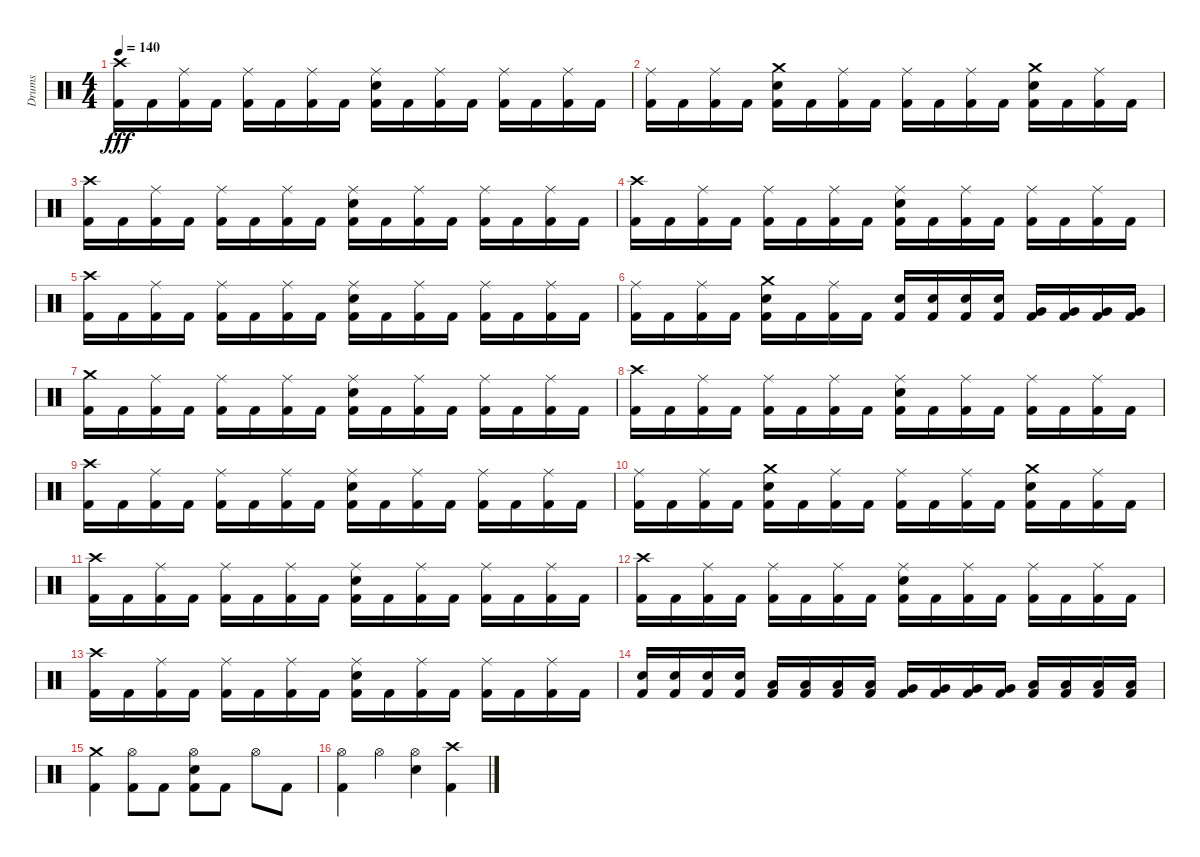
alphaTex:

\track ("Drums" "Drums") {instrument percussion}
\staff {score}
\articulation defaults
\ts (4 4)
\tempo 140
\clef neutral
\ks c
("Kick (hit) 2" "Crash high (hit)").16{dy fff} "Kick (hit) 2".16 ("Kick (hit) 2" "Ride (middle)").16 "Kick (hit) 2".16 ("Kick (hit) 2" "Ride (middle)").16 "Kick (hit) 2".16 ("Kick (hit) 2" "Ride (middle)").16 "Kick (hit) 2".16 ("Kick (hit) 2" "Electric Snare (hit)" "Ride (middle)").16 "Kick (hit) 2".16 ("Kick (hit) 2" "Ride (middle)").16 "Kick (hit) 2".16 ("Kick (hit) 2" "Ride (middle)").16 "Kick (hit) 2".16 ("Kick (hit) 2" "Ride (middle)").16 "Kick (hit) 2".16 |
("Kick (hit) 2" "Ride (middle)").16 "Kick (hit) 2".16 ("Kick (hit) 2" "Ride (middle)").16 "Kick (hit) 2".16 ("Kick (hit) 2" "Electric Snare (hit)" "Crash medium (hit)").16 "Kick (hit) 2".16 ("Kick (hit) 2" "Ride (middle)").16 "Kick (hit) 2".16 ("Kick (hit) 2" "Ride (middle)").16 "Kick (hit) 2".16 ("Kick (hit) 2" "Ride (middle)").16 "Kick (hit) 2".16 ("Kick (hit) 2" "Electric Snare (hit)" "Crash medium (hit)").16 "Kick (hit) 2".16 ("Kick (hit) 2" "Ride (middle)").16 "Kick (hit) 2".16 |
("Kick (hit) 2" "Crash high (hit)").16 "Kick (hit) 2".16 ("Kick (hit) 2" "Ride (middle)").16 "Kick (hit) 2".16 ("Kick (hit) 2" "Ride (middle)").16 "Kick (hit) 2".16 ("Kick (hit) 2" "Ride (middle)").16 "Kick (hit) 2".16 ("Kick (hit) 2" "Electric Snare (hit)" "Ride (middle)").16 "Kick (hit) 2".16 ("Kick (hit) 2" "Ride (middle)").16 "Kick (hit) 2".16 ("Kick (hit) 2" "Ride (middle)").16 "Kick (hit) 2".16 ("Kick (hit) 2" "Ride (middle)").16 "Kick (hit) 2".16 |
("Kick (hit) 2" "Crash high (hit)").16 "Kick (hit) 2".16 ("Kick (hit) 2" "Ride (middle)").16 "Kick (hit) 2".16 ("Kick (hit) 2" "Ride (middle)").16 "Kick (hit) 2".16 ("Kick (hit) 2" "Ride (middle)").16 "Kick (hit) 2".16 ("Kick (hit) 2" "Electric Snare (hit)" "Ride (middle)").16 "Kick (hit) 2".16 ("Kick (hit) 2" "Ride (middle)").16 "Kick (hit) 2".16 ("Kick (hit) 2" "Ride (middle)").16 "Kick (hit) 2".16 ("Kick (hit) 2" "Ride (middle)").16 "Kick (hit) 2".16 |
("Kick (hit) 2" "Crash high (hit)").16 "Kick (hit) 2".16 ("Kick (hit) 2" "Ride (middle)").16 "Kick (hit) 2".16 ("Kick (hit) 2" "Ride (middle)").16 "Kick (hit) 2".16 ("Kick (hit) 2" "Ride (middle)").16 "Kick (hit) 2".16 ("Kick (hit) 2" "Electric Snare (hit)" "Ride (middle)").16 "Kick (hit) 2".16 ("Kick (hit) 2" "Ride (middle)").16 "Kick (hit) 2".16 ("Kick (hit) 2" "Ride (middle)").16 "Kick (hit) 2".16 ("Kick (hit) 2" "Ride (middle)").16 "Kick (hit) 2".16 |
("Kick (hit) 2" "Ride (middle)").16 "Kick (hit) 2".16 ("Kick (hit) 2" "Ride (middle)").16 "Kick (hit) 2".16 ("Kick (hit) 2" "Electric Snare (hit)" "Crash medium (hit)").16 "Kick (hit) 2".16 ("Kick (hit) 2" "Ride (middle)").16 "Kick (hit) 2".16 ("Kick (hit) 2" "Electric Snare (hit)").16 ("Kick (hit) 2" "Electric Snare (hit)").16 ("Kick (hit) 2" "Electric Snare (hit)").16 ("Kick (hit) 2" "Electric Snare (hit)").16 ("Kick (hit) 2" "Very Low Tom (hit)").16 ("Kick (hit) 2" "Very Low Tom (hit)").16 ("Kick (hit) 2" "Very Low Tom (hit)").16 ("Kick (hit) 2" "Very Low Tom (hit)").16 |
("Kick (hit) 2" "Crash medium (hit)").16 "Kick (hit) 2".16 ("Kick (hit) 2" "Ride (middle)").16 "Kick (hit) 2".16 ("Kick (hit) 2" "Ride (middle)").16 "Kick (hit) 2".16 ("Kick (hit) 2" "Ride (middle)").16 "Kick (hit) 2".16 ("Kick (hit) 2" "Electric Snare (hit)" "Ride (middle)").16 "Kick (hit) 2".16 ("Kick (hit) 2" "Ride (middle)").16 "Kick (hit) 2".16 ("Kick (hit) 2" "Ride (middle)").16 "Kick (hit) 2".16 ("Kick (hit) 2" "Ride (middle)").16 "Kick (hit) 2".16 |
("Kick (hit) 2" "Crash high (hit)").16 "Kick (hit) 2".16 ("Kick (hit) 2" "Ride (middle)").16 "Kick (hit) 2".16 ("Kick (hit) 2" "Ride (middle)").16 "Kick (hit) 2".16 ("Kick (hit) 2" "Ride (middle)").16 "Kick (hit) 2".16 ("Kick (hit) 2" "Electric Snare (hit)" "Ride (middle)").16 "Kick (hit) 2".16 ("Kick (hit) 2" "Ride (middle)").16 "Kick (hit) 2".16 ("Kick (hit) 2" "Ride (middle)").16 "Kick (hit) 2".16 ("Kick (hit) 2" "Ride (middle)").16 "Kick (hit) 2".16 |
("Kick (hit) 2" "Crash high (hit)").16 "Kick (hit) 2".16 ("Kick (hit) 2" "Ride (middle)").16 "Kick (hit) 2".16 ("Kick (hit) 2" "Ride (middle)").16 "Kick (hit) 2".16 ("Kick (hit) 2" "Ride (middle)").16 "Kick (hit) 2".16 ("Kick (hit) 2" "Electric Snare (hit)" "Ride (middle)").16 "Kick (hit) 2".16 ("Kick (hit) 2" "Ride (middle)").16 "Kick (hit) 2".16 ("Kick (hit) 2" "Ride (middle)").16 "Kick (hit) 2".16 ("Kick (hit) 2" "Ride (middle)").16 "Kick (hit) 2".16 |
("Kick (hit) 2" "Ride (middle)").16 "Kick (hit) 2".16 ("Kick (hit) 2" "Ride (middle)").16 "Kick (hit) 2".16 ("Kick (hit) 2" "Electric Snare (hit)" "Crash medium (hit)").16 "Kick (hit) 2".16 ("Kick (hit) 2" "Ride (middle)").16 "Kick (hit) 2".16 ("Kick (hit) 2" "Ride (middle)").16 "Kick (hit) 2".16 ("Kick (hit) 2" "Ride (middle)").16 "Kick (hit) 2".16 ("Kick (hit) 2" "Electric Snare (hit)" "Crash medium (hit)").16 "Kick (hit) 2".16 ("Kick (hit) 2" "Ride (middle)").16 "Kick (hit) 2".16 |
("Kick (hit) 2" "Crash high (hit)").16 "Kick (hit) 2".16 ("Kick (hit) 2" "Ride (middle)").16 "Kick (hit) 2".16 ("Kick (hit) 2" "Ride (middle)").16 "Kick (hit) 2".16 ("Kick (hit) 2" "Ride (middle)").16 "Kick (hit) 2".16 ("Kick (hit) 2" "Electric Snare (hit)" "Ride (middle)").16 "Kick (hit) 2".16 ("Kick (hit) 2" "Ride (middle)").16 "Kick (hit) 2".16 ("Kick (hit) 2" "Ride (middle)").16 "Kick (hit) 2".16 ("Kick (hit) 2" "Ride (middle)").16 "Kick (hit) 2".16 |
("Kick (hit) 2" "Crash high (hit)").16 "Kick (hit) 2".16 ("Kick (hit) 2" "Ride (middle)").16 "Kick (hit) 2".16 ("Kick (hit) 2" "Ride (middle)").16 "Kick (hit) 2".16 ("Kick (hit) 2" "Ride (middle)").16 "Kick (hit) 2".16 ("Kick (hit) 2" "Electric Snare (hit)" "Ride (middle)").16 "Kick (hit) 2".16 ("Kick (hit) 2" "Ride (middle)").16 "Kick (hit) 2".16 ("Kick (hit) 2" "Ride (middle)").16 "Kick (hit) 2".16 ("Kick (hit) 2" "Ride (middle)").16 "Kick (hit) 2".16 |
("Kick (hit) 2" "Crash high (hit)").16 "Kick (hit) 2".16 ("Kick (hit) 2" "Ride (middle)").16 "Kick (hit) 2".16 ("Kick (hit) 2" "Ride (middle)").16 "Kick (hit) 2".16 ("Kick (hit) 2" "Ride (middle)").16 "Kick (hit) 2".16 ("Kick (hit) 2" "Electric Snare (hit)" "Ride (middle)").16 "Kick (hit) 2".16 ("Kick (hit) 2" "Ride (middle)").16 "Kick (hit) 2".16 ("Kick (hit) 2" "Ride (middle)").16 "Kick (hit) 2".16 ("Kick (hit) 2" "Ride (middle)").16 "Kick (hit) 2".16 |
("Kick (hit) 2" "Electric Snare (hit)").16 ("Kick (hit) 2" "Electric Snare (hit)").16 ("Kick (hit) 2" "Electric Snare (hit)").16 ("Kick (hit) 2" "Electric Snare (hit)").16 ("Kick (hit) 2" "Low Floor Tom (hit)").16 ("Kick (hit) 2" "Low Floor Tom (hit)").16 ("Kick (hit) 2" "Low Floor Tom (hit)").16 ("Kick (hit) 2" "Low Floor Tom (hit)").16 ("Kick (hit) 2" "Very Low Tom (hit)").16 ("Kick (hit) 2" "Very Low Tom (hit)").16 ("Kick (hit) 2" "Very Low Tom (hit)").16 ("Kick (hit) 2" "Very Low Tom (hit)").16 ("Kick (hit) 2" "Low Tom (hit)").16 ("Kick (hit) 2" "Low Tom (hit)").16 ("Kick (hit) 2" "Low Tom (hit)").16 ("Kick (hit) 2" "Low Tom (hit)").16 |
("Kick (hit) 2" "Crash medium (hit)").4 ("Kick (hit) 2" "Hi-Hat (open)").8 "Kick (hit) 2".8 ("Kick (hit) 2" "Electric Snare (hit)" "Hi-Hat (open)").8 "Kick (hit) 2".8 "Hi-Hat (open)".8 "Kick (hit) 2".8 |
("Kick (hit) 2" "Hi-Hat (open)").4 "Hi-Hat (open)".4 ("Electric Snare (hit)" "Hi-Hat (open)").4 ("Kick (hit) 2" "Crash high (hit)").4
